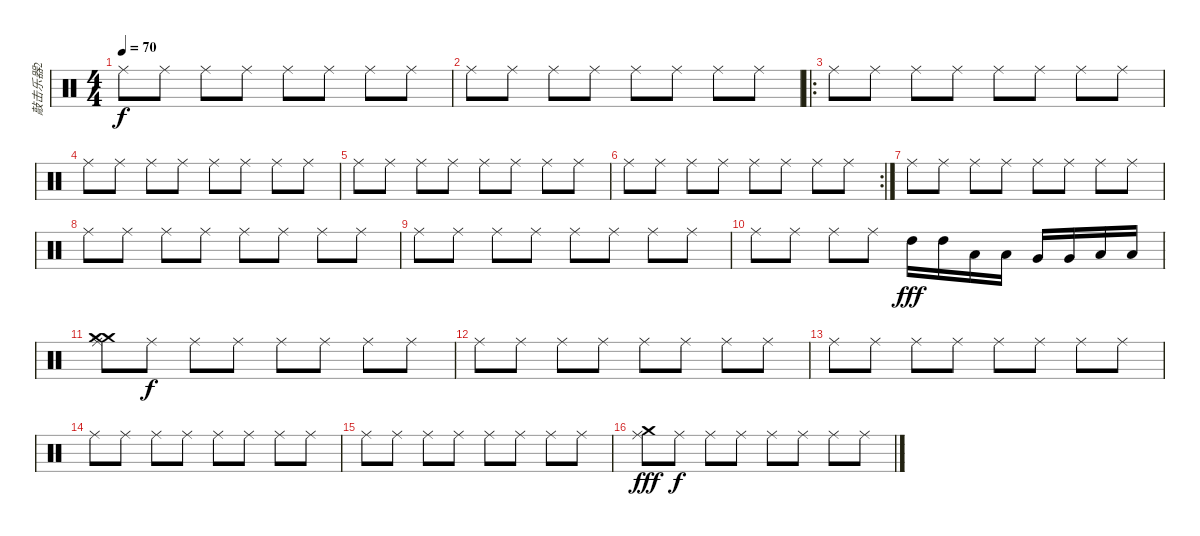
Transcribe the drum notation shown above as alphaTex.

\track ("敲击乐器2" "敲击乐器2") {instrument percussion}
\staff {score}
\articulation defaults
\ts (4 4)
\tempo 70
\clef neutral
\ks c "Ride (middle)".8{dy f} "Ride (middle)".8 "Ride (middle)".8 "Ride (middle)".8 "Ride (middle)".8 "Ride (middle)".8 "Ride (middle)".8 "Ride (middle)".8
|
"Ride (middle)".8 "Ride (middle)".8 "Ride (middle)".8 "Ride (middle)".8 "Ride (middle)".8 "Ride (middle)".8 "Ride (middle)".8 "Ride (middle)".8 |
\ro "Ride (middle)".8 "Ride (middle)".8 "Ride (middle)".8 "Ride (middle)".8 "Ride (middle)".8 "Ride (middle)".8 "Ride (middle)".8 "Ride (middle)".8
|
"Ride (middle)".8 "Ride (middle)".8 "Ride (middle)".8 "Ride (middle)".8 "Ride (middle)".8 "Ride (middle)".8 "Ride (middle)".8 "Ride (middle)".8 |
"Ride (middle)".8 "Ride (middle)".8 "Ride (middle)".8 "Ride (middle)".8 "Ride (middle)".8 "Ride (middle)".8 "Ride (middle)".8 "Ride (middle)".8 |
\rc 2 "Ride (middle)".8 "Ride (middle)".8 "Ride (middle)".8 "Ride (middle)".8 "Ride (middle)".8 "Ride (middle)".8 "Ride (middle)".8 "Ride (middle)".8
|
"Ride (middle)".8 "Ride (middle)".8 "Ride (middle)".8 "Ride (middle)".8 "Ride (middle)".8 "Ride (middle)".8 "Ride (middle)".8 "Ride (middle)".8 |
"Ride (middle)".8 "Ride (middle)".8 "Ride (middle)".8 "Ride (middle)".8 "Ride (middle)".8 "Ride (middle)".8 "Ride (middle)".8 "Ride (middle)".8 |
"Ride (middle)".8 "Ride (middle)".8 "Ride (middle)".8 "Ride (middle)".8 "Ride (middle)".8 "Ride (middle)".8 "Ride (middle)".8 "Ride (middle)".8 |
"Ride (middle)".8 "Ride (middle)".8 "Ride (middle)".8 "Ride (middle)".8 "High Tom (hit)".16{dy fff} "High Tom (hit)".16 "Low Tom (hit)".16 "Low Tom (hit)".16 "Very Low Tom (hit)".16 "Very Low Tom (hit)".16 "Low Floor Tom (hit)".16 "Low Floor Tom (hit)".16 |
("Ride (middle)" "Crash medium (hit)" "Crash medium (hit)").8 "Ride (middle)".8{dy f} "Ride (middle)".8 "Ride (middle)".8 "Ride (middle)".8 "Ride (middle)".8 "Ride (middle)".8 "Ride (middle)".8 |
"Ride (middle)".8 "Ride (middle)".8 "Ride (middle)".8 "Ride (middle)".8 "Ride (middle)".8 "Ride (middle)".8 "Ride (middle)".8 "Ride (middle)".8 |
"Ride (middle)".8 "Ride (middle)".8 "Ride (middle)".8 "Ride (middle)".8 "Ride (middle)".8 "Ride (middle)".8 "Ride (middle)".8 "Ride (middle)".8 |
"Ride (middle)".8 "Ride (middle)".8 "Ride (middle)".8 "Ride (middle)".8 "Ride (middle)".8 "Ride (middle)".8 "Ride (middle)".8 "Ride (middle)".8 |
"Ride (middle)".8 "Ride (middle)".8 "Ride (middle)".8 "Ride (middle)".8 "Ride (middle)".8 "Ride (middle)".8 "Ride (middle)".8 "Ride (middle)".8 |
("Ride (middle)" "Crash medium (hit)").8{dy fff} "Ride (middle)".8{dy f} "Ride (middle)".8 "Ride (middle)".8 "Ride (middle)".8 "Ride (middle)".8 "Ride (middle)".8 "Ride (middle)".8
